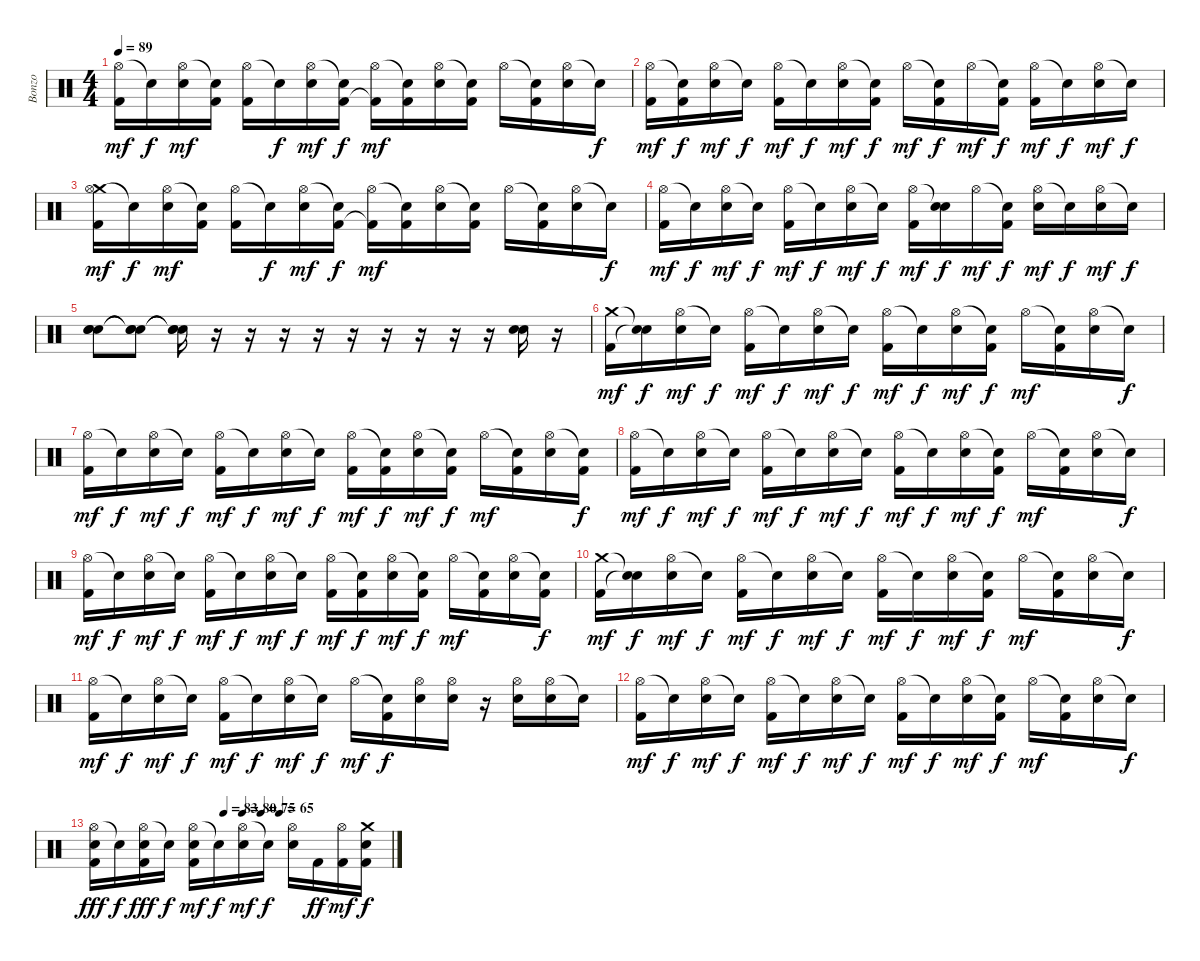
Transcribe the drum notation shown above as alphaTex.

\track ("Bonzo" "Bonzo") {instrument percussion}
\staff {score}
\articulation defaults
\ts (4 4)
\tempo 89
\clef neutral
\ks c
("Hi-Hat (open)" "Kick (hit) 2").16{dy mf} "Snare (hit)"{t}.16{dy f} ("Hi-Hat (open)" "Snare (hit) 2").16{dy mf} ("Snare (hit)"{t} "Kick (hit) 2").16 ("Hi-Hat (open)" "Kick (hit) 2").16 "Snare (hit)"{t}.16{dy f} ("Hi-Hat (open)" "Snare (hit) 2").16{dy mf} ("Snare (hit)"{t} "Kick (hit) 2").16{dy f} ("Hi-Hat (open)" "Kick (hit) 2"{t}).16{dy mf} ("Snare (hit)"{t} "Kick (hit) 2").16 ("Hi-Hat (open)" "Snare (hit) 2").16 ("Snare (hit)"{t} "Kick (hit) 2").16 "Hi-Hat (open)".16 ("Snare (hit)"{t} "Kick (hit) 2").16 ("Hi-Hat (open)" "Snare (hit) 2").16 "Snare (hit)"{t}.16{dy f} |
("Hi-Hat (open)" "Kick (hit) 2").16{dy mf} ("Snare (hit)"{t} "Kick (hit) 2").16{dy f} ("Hi-Hat (open)" "Snare (hit) 2").16{dy mf} "Snare (hit)"{t}.16{dy f} ("Hi-Hat (open)" "Kick (hit) 2").16{dy mf} "Snare (hit)"{t}.16{dy f} ("Hi-Hat (open)" "Snare (hit) 2").16{dy mf} ("Snare (hit)"{t} "Kick (hit) 2").16{dy f} "Hi-Hat (open)".16{dy mf} ("Snare (hit)"{t} "Kick (hit) 2").16{dy f} "Hi-Hat (open)".16{dy mf} ("Snare (hit)"{t} "Kick (hit) 2").16{dy f} ("Hi-Hat (open)" "Kick (hit) 2").16{dy mf} "Snare (hit)"{t}.16{dy f} ("Hi-Hat (open)" "Snare (hit) 2").16{dy mf} "Snare (hit)"{t}.16{dy f} |
("Crash medium (hit)" "Hi-Hat (open)" "Kick (hit) 2").16{dy mf} "Snare (hit)"{t}.16{dy f} ("Hi-Hat (open)" "Snare (hit) 2").16{dy mf} ("Snare (hit)"{t} "Kick (hit) 2").16 ("Hi-Hat (open)" "Kick (hit) 2").16 "Snare (hit)"{t}.16{dy f} ("Hi-Hat (open)" "Snare (hit) 2").16{dy mf} ("Snare (hit)"{t} "Kick (hit) 2").16{dy f} ("Hi-Hat (open)" "Kick (hit) 2"{t}).16{dy mf} ("Snare (hit)"{t} "Kick (hit) 2").16 ("Hi-Hat (open)" "Snare (hit) 2").16 ("Snare (hit)"{t} "Kick (hit) 2").16 "Hi-Hat (open)".16 ("Snare (hit)"{t} "Kick (hit) 2").16 ("Hi-Hat (open)" "Snare (hit) 2").16 "Snare (hit)"{t}.16{dy f} |
("Hi-Hat (open)" "Kick (hit) 2").16{dy mf} "Snare (hit)"{t}.16{dy f} ("Hi-Hat (open)" "Snare (hit) 2").16{dy mf} "Snare (hit)"{t}.16{dy f} ("Hi-Hat (open)" "Kick (hit) 2").16{dy mf} "Snare (hit)"{t}.16{dy f} ("Hi-Hat (open)" "Snare (hit) 2").16{dy mf} "Snare (hit)"{t}.16{dy f} ("Hi-Hat (open)" "Kick (hit) 2").16{dy mf} ("Snare (hit)"{t} "Snare (hit) 2").16{dy f} "Hi-Hat (open)".16{dy mf} ("Snare (hit)"{t} "Kick (hit) 2").16{dy f} ("Hi-Hat (open)" "Snare (hit) 2").16{dy mf} "Snare (hit)"{t}.16{dy f} ("Hi-Hat (open)" "Snare (hit) 2").16{dy mf} "Snare (hit)"{t}.16{dy f} |
("Snare (hit) 2" "Snare (hit) 2" "Snare (hit) 2").8 ("Snare (hit)"{t} "Snare (hit)"{t} "Snare (hit)"{t}).8 ("Snare (hit)"{t} "Snare (hit)"{t} "Snare (hit)"{t}).16 r.16 r.16 r.16 r.16 r.16 r.16 r.16 r.16 r.16 ("Snare (hit) 2" "Snare (hit) 2").16 r.16 |
("Crash medium (hit)" "Kick (hit) 2").16{dy mf} ("Snare (hit)"{t} "Snare (hit)"{t}).16{dy f} ("Hi-Hat (open)" "Snare (hit) 2").16{dy mf} "Snare (hit)"{t}.16{dy f} ("Hi-Hat (open)" "Kick (hit) 2").16{dy mf} "Snare (hit)"{t}.16{dy f} ("Hi-Hat (open)" "Snare (hit) 2").16{dy mf} "Snare (hit)"{t}.16{dy f} ("Hi-Hat (open)" "Kick (hit) 2").16{dy mf} "Snare (hit)"{t}.16{dy f} ("Hi-Hat (open)" "Snare (hit) 2").16{dy mf} ("Snare (hit)"{t} "Kick (hit) 2").16{dy f} "Hi-Hat (open)".16{dy mf} ("Snare (hit)"{t} "Kick (hit) 2").16 ("Hi-Hat (open)" "Snare (hit) 2").16 "Snare (hit)"{t}.16{dy f} |
("Hi-Hat (open)" "Kick (hit) 2").16{dy mf} "Snare (hit)"{t}.16{dy f} ("Hi-Hat (open)" "Snare (hit) 2").16{dy mf} "Snare (hit)"{t}.16{dy f} ("Hi-Hat (open)" "Kick (hit) 2").16{dy mf} "Snare (hit)"{t}.16{dy f} ("Hi-Hat (open)" "Snare (hit) 2").16{dy mf} "Snare (hit)"{t}.16{dy f} ("Hi-Hat (open)" "Kick (hit) 2").16{dy mf} ("Snare (hit)"{t} "Kick (hit) 2").16{dy f} ("Hi-Hat (open)" "Snare (hit) 2").16{dy mf} ("Snare (hit)"{t} "Kick (hit) 2").16{dy f} "Hi-Hat (open)".16{dy mf} ("Snare (hit)"{t} "Kick (hit) 2").16 ("Hi-Hat (open)" "Snare (hit) 2").16 ("Snare (hit)"{t} "Kick (hit) 2").16{dy f} |
("Hi-Hat (open)" "Kick (hit) 2").16{dy mf} "Snare (hit)"{t}.16{dy f} ("Hi-Hat (open)" "Snare (hit) 2").16{dy mf} "Snare (hit)"{t}.16{dy f} ("Hi-Hat (open)" "Kick (hit) 2").16{dy mf} "Snare (hit)"{t}.16{dy f} ("Hi-Hat (open)" "Snare (hit) 2").16{dy mf} "Snare (hit)"{t}.16{dy f} ("Hi-Hat (open)" "Kick (hit) 2").16{dy mf} "Snare (hit)"{t}.16{dy f} ("Hi-Hat (open)" "Snare (hit) 2").16{dy mf} ("Snare (hit)"{t} "Kick (hit) 2").16{dy f} "Hi-Hat (open)".16{dy mf} ("Snare (hit)"{t} "Kick (hit) 2").16 ("Hi-Hat (open)" "Snare (hit) 2").16 "Snare (hit)"{t}.16{dy f} |
("Hi-Hat (open)" "Kick (hit) 2").16{dy mf} "Snare (hit)"{t}.16{dy f} ("Hi-Hat (open)" "Snare (hit) 2").16{dy mf} "Snare (hit)"{t}.16{dy f} ("Hi-Hat (open)" "Kick (hit) 2").16{dy mf} "Snare (hit)"{t}.16{dy f} ("Hi-Hat (open)" "Snare (hit) 2").16{dy mf} "Snare (hit)"{t}.16{dy f} ("Hi-Hat (open)" "Kick (hit) 2").16{dy mf} ("Snare (hit)"{t} "Kick (hit) 2").16{dy f} ("Hi-Hat (open)" "Snare (hit) 2").16{dy mf} ("Snare (hit)"{t} "Kick (hit) 2").16{dy f} "Hi-Hat (open)".16{dy mf} ("Snare (hit)"{t} "Kick (hit) 2").16 ("Hi-Hat (open)" "Snare (hit) 2").16 ("Snare (hit)"{t} "Kick (hit) 2").16{dy f} |
("Crash medium (hit)" "Kick (hit) 2").16{dy mf} ("Snare (hit)"{t} "Snare (hit)"{t}).16{dy f} ("Hi-Hat (open)" "Snare (hit) 2").16{dy mf} "Snare (hit)"{t}.16{dy f} ("Hi-Hat (open)" "Kick (hit) 2").16{dy mf} "Snare (hit)"{t}.16{dy f} ("Hi-Hat (open)" "Snare (hit) 2").16{dy mf} "Snare (hit)"{t}.16{dy f} ("Hi-Hat (open)" "Kick (hit) 2").16{dy mf} "Snare (hit)"{t}.16{dy f} ("Hi-Hat (open)" "Snare (hit) 2").16{dy mf} ("Snare (hit)"{t} "Kick (hit) 2").16{dy f} "Hi-Hat (open)".16{dy mf} ("Snare (hit)"{t} "Kick (hit) 2").16 ("Hi-Hat (open)" "Snare (hit) 2").16 "Snare (hit)"{t}.16{dy f} |
("Hi-Hat (open)" "Kick (hit) 2").16{dy mf} "Snare (hit)"{t}.16{dy f} ("Hi-Hat (open)" "Snare (hit) 2").16{dy mf} "Snare (hit)"{t}.16{dy f} ("Hi-Hat (open)" "Kick (hit) 2").16{dy mf} "Snare (hit)"{t}.16{dy f} ("Hi-Hat (open)" "Snare (hit) 2").16{dy mf} "Snare (hit)"{t}.16{dy f} "Hi-Hat (open)".16{dy mf} ("Snare (hit)"{t} "Kick (hit) 2").16{dy f} ("Hi-Hat (open)" "Snare (hit) 2").16 ("Hi-Hat (open)" "Snare (hit) 2").16 r.16 ("Hi-Hat (open)" "Snare (hit) 2").16 ("Hi-Hat (open)" "Snare (hit) 2").16 "Snare (hit)"{t}.16 |
("Hi-Hat (open)" "Kick (hit) 2").16{dy mf} "Snare (hit)"{t}.16{dy f} ("Hi-Hat (open)" "Snare (hit) 2").16{dy mf} "Snare (hit)"{t}.16{dy f} ("Hi-Hat (open)" "Kick (hit) 2").16{dy mf} "Snare (hit)"{t}.16{dy f} ("Hi-Hat (open)" "Snare (hit) 2").16{dy mf} "Snare (hit)"{t}.16{dy f} ("Hi-Hat (open)" "Kick (hit) 2").16{dy mf} "Snare (hit)"{t}.16{dy f} ("Hi-Hat (open)" "Snare (hit) 2").16{dy mf} ("Snare (hit)"{t} "Kick (hit) 2").16{dy f} "Hi-Hat (open)".16{dy mf} ("Snare (hit)"{t} "Kick (hit) 2").16 ("Hi-Hat (open)" "Snare (hit) 2").16 "Snare (hit)"{t}.16{dy f} |
\tempo (83 0.4375)
\tempo (80 0.5)
\tempo (75 0.5625)
\tempo (65 0.625)
("Hi-Hat (open)" "Kick (hit) 2" "Snare (hit) 2").16{dy fff} "Snare (hit)"{t}.16{dy f} ("Hi-Hat (open)" "Kick (hit) 2" "Snare (hit) 2").16{dy fff} "Snare (hit)"{t}.16{dy f} ("Hi-Hat (open)" "Kick (hit) 2" "Snare (hit) 2").16{dy mf} "Snare (hit)"{t}.16{dy f} ("Hi-Hat (open)" "Snare (hit) 2").16{dy mf} "Snare (hit)"{t}.16{dy f} ("Hi-Hat (open)" "Snare (hit) 2").16 "Kick (hit) 2".16{dy ff} ("Hi-Hat (open)" "Kick (hit) 2").16{dy mf} ("Crash medium (hit)" "Kick (hit) 2" "Snare (hit) 2").16{dy f}
